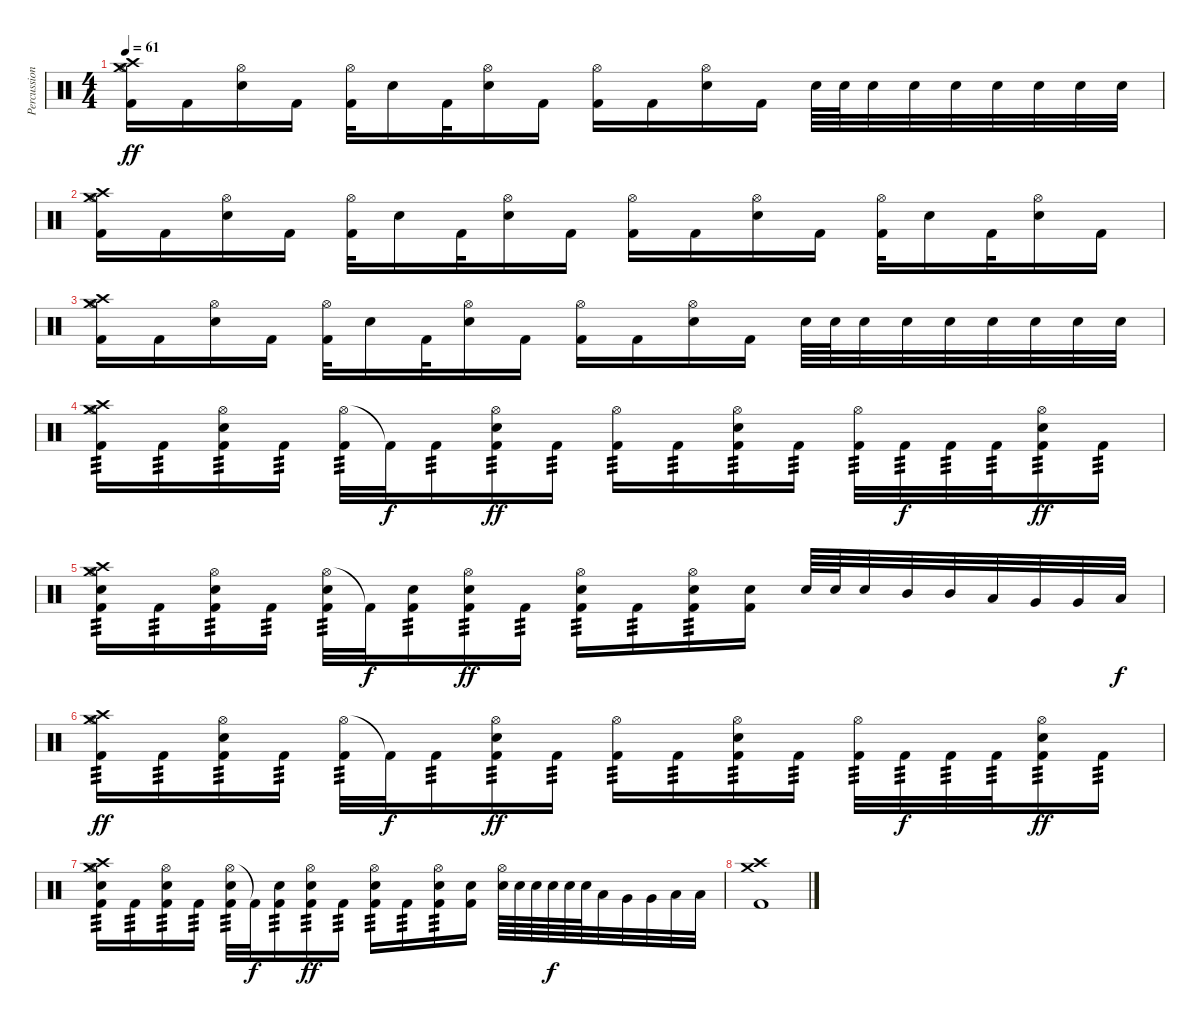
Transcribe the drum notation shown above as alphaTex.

\track ("Percussion" "Percussion") {solo instrument percussion}
\staff {score}
\articulation defaults
\ts (4 4)
\tempo 61
\clef neutral
\ks c
("Crash medium (hit)" "Hi-Hat (open)" "Crash high (hit)" "Kick (hit) 2").16{dy ff} "Kick (hit) 2".16 ("Hi-Hat (open)" "Electric Snare (hit)").16 "Kick (hit) 2".16 ("Hi-Hat (open)" "Kick (hit) 2").32 "Electric Snare (hit)".16 "Kick (hit) 2".32 ("Hi-Hat (open)" "Electric Snare (hit)").16 "Kick (hit) 2".16 ("Hi-Hat (open)" "Kick (hit) 2").16 "Kick (hit) 2".16 ("Hi-Hat (open)" "Electric Snare (hit)").16 "Kick (hit) 2".16 "Electric Snare (hit)".64 "Electric Snare (hit)".64 "Electric Snare (hit)".32 "Electric Snare (hit)".32 "Electric Snare (hit)".32 "Electric Snare (hit)".32 "Electric Snare (hit)".32 "Electric Snare (hit)".32 "Electric Snare (hit)".32 |
("Crash medium (hit)" "Hi-Hat (open)" "Crash high (hit)" "Kick (hit) 2").16 "Kick (hit) 2".16 ("Hi-Hat (open)" "Electric Snare (hit)").16 "Kick (hit) 2".16 ("Hi-Hat (open)" "Kick (hit) 2").32 "Electric Snare (hit)".16 "Kick (hit) 2".32 ("Hi-Hat (open)" "Electric Snare (hit)").16 "Kick (hit) 2".16 ("Hi-Hat (open)" "Kick (hit) 2").16 "Kick (hit) 2".16 ("Hi-Hat (open)" "Electric Snare (hit)").16 "Kick (hit) 2".16 ("Hi-Hat (open)" "Kick (hit) 2").32 "Electric Snare (hit)".16 "Kick (hit) 2".32 ("Hi-Hat (open)" "Electric Snare (hit)").16 "Kick (hit) 2".16 |
("Crash medium (hit)" "Hi-Hat (open)" "Crash high (hit)" "Kick (hit) 2").16 "Kick (hit) 2".16 ("Hi-Hat (open)" "Electric Snare (hit)").16 "Kick (hit) 2".16 ("Hi-Hat (open)" "Kick (hit) 2").32 "Electric Snare (hit)".16 "Kick (hit) 2".32 ("Hi-Hat (open)" "Electric Snare (hit)").16 "Kick (hit) 2".16 ("Hi-Hat (open)" "Kick (hit) 2").16 "Kick (hit) 2".16 ("Hi-Hat (open)" "Electric Snare (hit)").16 "Kick (hit) 2".16 "Electric Snare (hit)".64 "Electric Snare (hit)".64 "Electric Snare (hit)".32 "Electric Snare (hit)".32 "Electric Snare (hit)".32 "Electric Snare (hit)".32 "Electric Snare (hit)".32 "Electric Snare (hit)".32 "Electric Snare (hit)".32 |
("Crash medium (hit)" "Hi-Hat (open)" "Crash high (hit)" "Kick (hit) 2").16{tp 3} "Kick (hit) 2".16{tp 3} ("Hi-Hat (open)" "Electric Snare (hit)" "Kick (hit) 2").16{tp 3} "Kick (hit) 2".16{tp 3} ("Hi-Hat (open)" "Kick (hit) 2").32{tp 3} "Kick (hit) 2"{t}.32{dy f} "Kick (hit) 2".16{tp 3} ("Hi-Hat (open)" "Electric Snare (hit)" "Kick (hit) 2").16{tp 3 dy ff} "Kick (hit) 2".16{tp 3} ("Hi-Hat (open)" "Kick (hit) 2").16{tp 3} "Kick (hit) 2".16{tp 3} ("Hi-Hat (open)" "Electric Snare (hit)" "Kick (hit) 2").16{tp 3} "Kick (hit) 2".16{tp 3} ("Hi-Hat (open)" "Kick (hit) 2").32{tp 3} "Kick (hit) 2".32{tp 3 dy f} "Kick (hit) 2".32{tp 3} "Kick (hit) 2".32{tp 3} ("Hi-Hat (open)" "Electric Snare (hit)" "Kick (hit) 2").16{tp 3 dy ff} "Kick (hit) 2".16{tp 3} |
("Crash medium (hit)" "Hi-Hat (open)" "Crash high (hit)" "Electric Snare (hit)" "Kick (hit) 2").16{tp 3} "Kick (hit) 2".16{tp 3} ("Hi-Hat (open)" "Electric Snare (hit)" "Kick (hit) 2").16{tp 3} "Kick (hit) 2".16{tp 3} ("Hi-Hat (open)" "Electric Snare (hit)" "Kick (hit) 2").32{tp 3} "Kick (hit) 2"{t}.32{dy f} ("Electric Snare (hit)" "Kick (hit) 2").16{tp 3} ("Hi-Hat (open)" "Electric Snare (hit)" "Kick (hit) 2").16{tp 3 dy ff} "Kick (hit) 2".16{tp 3} ("Hi-Hat (open)" "Electric Snare (hit)" "Kick (hit) 2").16{tp 3} "Kick (hit) 2".16{tp 3} ("Hi-Hat (open)" "Electric Snare (hit)" "Kick (hit) 2").16{tp 3} ("Electric Snare (hit)" "Kick (hit) 2").16 "Electric Snare (hit)".64 "Electric Snare (hit)".64 "Electric Snare (hit)".32 "Mid Tom (hit)".32 "Mid Tom (hit)".32 "Low Tom (hit)".32 "Very Low Tom (hit)".32 "Very Low Tom (hit)".32 "Low Floor Tom (hit)".32{dy f} |
("Crash medium (hit)" "Hi-Hat (open)" "Crash high (hit)" "Kick (hit) 2").16{tp 3 dy ff} "Kick (hit) 2".16{tp 3} ("Hi-Hat (open)" "Electric Snare (hit)" "Kick (hit) 2").16{tp 3} "Kick (hit) 2".16{tp 3} ("Hi-Hat (open)" "Kick (hit) 2").32{tp 3} "Kick (hit) 2"{t}.32{dy f} "Kick (hit) 2".16{tp 3} ("Hi-Hat (open)" "Electric Snare (hit)" "Kick (hit) 2").16{tp 3 dy ff} "Kick (hit) 2".16{tp 3} ("Hi-Hat (open)" "Kick (hit) 2").16{tp 3} "Kick (hit) 2".16{tp 3} ("Hi-Hat (open)" "Electric Snare (hit)" "Kick (hit) 2").16{tp 3} "Kick (hit) 2".16{tp 3} ("Hi-Hat (open)" "Kick (hit) 2").32{tp 3} "Kick (hit) 2".32{tp 3 dy f} "Kick (hit) 2".32{tp 3} "Kick (hit) 2".32{tp 3} ("Hi-Hat (open)" "Electric Snare (hit)" "Kick (hit) 2").16{tp 3 dy ff} "Kick (hit) 2".16{tp 3} |
("Crash medium (hit)" "Hi-Hat (open)" "Crash high (hit)" "Electric Snare (hit)" "Kick (hit) 2").16{tp 3} "Kick (hit) 2".16{tp 3} ("Hi-Hat (open)" "Electric Snare (hit)" "Kick (hit) 2").16{tp 3} "Kick (hit) 2".16{tp 3} ("Hi-Hat (open)" "Electric Snare (hit)" "Kick (hit) 2").32{tp 3} "Kick (hit) 2"{t}.32{dy f} ("Electric Snare (hit)" "Kick (hit) 2").16{tp 3} ("Hi-Hat (open)" "Electric Snare (hit)" "Kick (hit) 2").16{tp 3 dy ff} "Kick (hit) 2".16{tp 3} ("Hi-Hat (open)" "Electric Snare (hit)" "Kick (hit) 2").16{tp 3} "Kick (hit) 2".16{tp 3} ("Hi-Hat (open)" "Electric Snare (hit)" "Kick (hit) 2").16{tp 3} ("Electric Snare (hit)" "Kick (hit) 2").16 ("Hi-Hat (open)" "Electric Snare (hit)").64 "Electric Snare (hit)".64 "Electric Snare (hit)".64 "Electric Snare (hit)".64{dy f} "Electric Snare (hit)".64 "Electric Snare (hit)".64 "Low Tom (hit)".32 "Very Low Tom (hit)".32 "Very Low Tom (hit)".32 "Low Floor Tom (hit)".32 "Low Floor Tom (hit)".32 |
("Crash medium (hit)" "Crash high (hit)" "Kick (hit) 2").1
